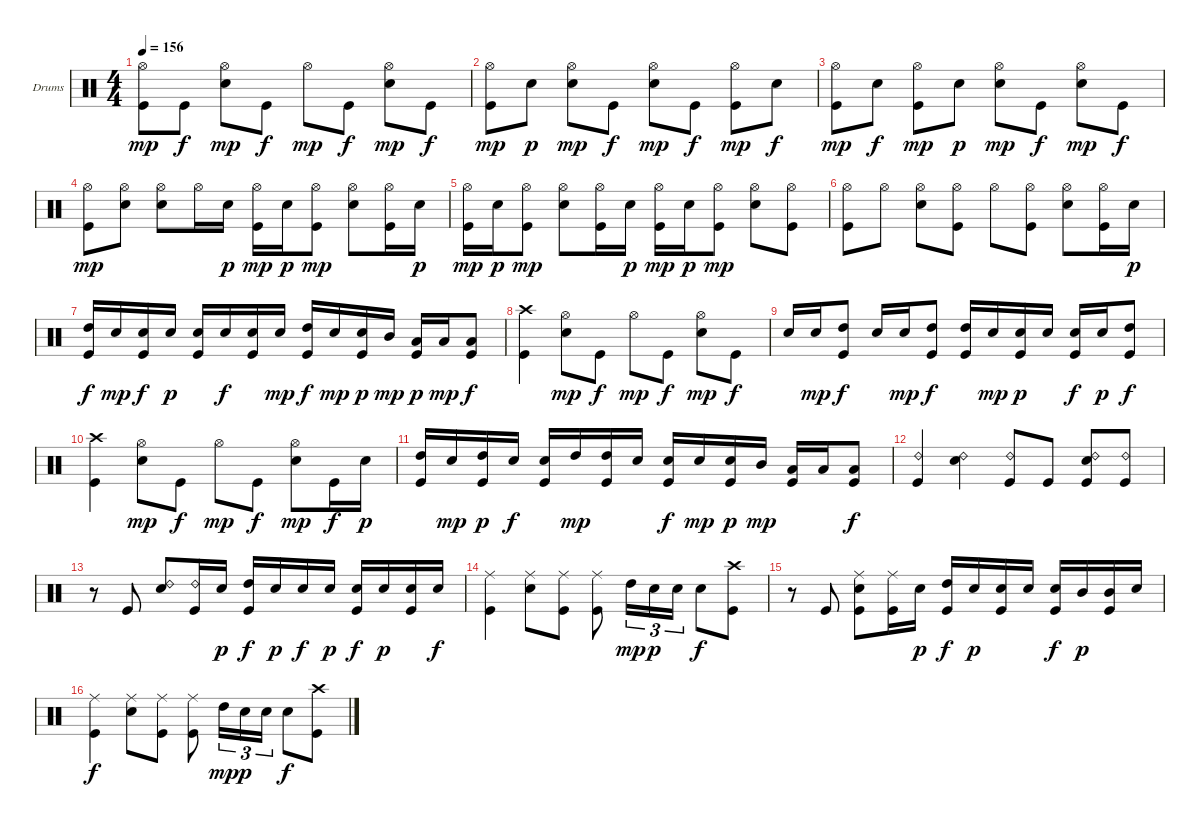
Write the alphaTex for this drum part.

\bracketExtendMode groupsimilarinstruments
\firstSystemTrackNameOrientation horizontal
\otherSystemsTrackNameOrientation horizontal
\track ("Drumkit" "Drums") {instrument percussion}
\staff {score}
\articulation defaults
\ts (4 4)
\tempo 156
\clef neutral
\ks c
("Hi-Hat (open)" "Kick (hit)").8{dy mp} "Kick (hit)".8{dy f} ("Hi-Hat (open)" "Snare (hit) 2").8{dy mp} "Kick (hit)".8{dy f} "Hi-Hat (open)".8{dy mp} "Kick (hit)".8{dy f} ("Hi-Hat (open)" "Snare (hit) 2").8{dy mp} "Kick (hit)".8{dy f} |
("Hi-Hat (open)" "Kick (hit)").8{dy mp} "Snare (hit) 2".8{dy p} ("Hi-Hat (open)" "Snare (hit) 2").8{dy mp} "Kick (hit)".8{dy f} ("Hi-Hat (open)" "Snare (hit) 2").8{dy mp} "Kick (hit)".8{dy f} ("Hi-Hat (open)" "Kick (hit)").8{dy mp} "Snare (hit) 2".8{dy f} |
("Hi-Hat (open)" "Kick (hit)").8{dy mp} "Snare (hit) 2".8{dy f} ("Hi-Hat (open)" "Kick (hit)").8{dy mp} "Snare (hit) 2".8{dy p} ("Hi-Hat (open)" "Snare (hit) 2").8{dy mp} "Kick (hit)".8{dy f} ("Hi-Hat (open)" "Snare (hit) 2").8{dy mp} "Kick (hit)".8{dy f} |
("Hi-Hat (open)" "Kick (hit)").8{dy mp} ("Hi-Hat (open)" "Snare (hit) 2").8 ("Hi-Hat (open)" "Snare (hit) 2").8 "Hi-Hat (open)".16 "Snare (hit) 2".16{dy p} ("Hi-Hat (open)" "Kick (hit)").16{dy mp} "Snare (hit) 2".16{dy p} ("Hi-Hat (open)" "Kick (hit)").8{dy mp} ("Hi-Hat (open)" "Snare (hit) 2").8 ("Hi-Hat (open)" "Kick (hit)").16 "Snare (hit) 2".16{dy p} |
("Hi-Hat (open)" "Kick (hit)").16{dy mp} "Snare (hit) 2".16{dy p} ("Hi-Hat (open)" "Kick (hit)").8{dy mp} ("Hi-Hat (open)" "Snare (hit) 2").8 ("Hi-Hat (open)" "Kick (hit)").16 "Snare (hit) 2".16{dy p} ("Hi-Hat (open)" "Kick (hit)").16{dy mp} "Snare (hit) 2".16{dy p} ("Hi-Hat (open)" "Kick (hit)").8{dy mp} ("Hi-Hat (open)" "Snare (hit) 2").8 ("Hi-Hat (open)" "Kick (hit)").8 |
("Hi-Hat (open)" "Kick (hit)").8 "Hi-Hat (open)".8 ("Hi-Hat (open)" "Snare (hit) 2").8 ("Hi-Hat (open)" "Kick (hit)").8 "Hi-Hat (open)".8 ("Hi-Hat (open)" "Kick (hit)").8 ("Hi-Hat (open)" "Snare (hit) 2").8 ("Hi-Hat (open)" "Kick (hit)").16 "Snare (hit) 2".16{dy p} |
("High Tom (hit)" "Kick (hit)").16{dy f} "Snare (hit) 2".16{dy mp} ("Snare (hit) 2" "Kick (hit)").16{dy f} "Snare (hit) 2".16{dy p} ("Snare (hit) 2" "Kick (hit)").16 "Snare (hit) 2".16{dy f} ("Snare (hit) 2" "Kick (hit)").16 "Snare (hit) 2".16{dy mp} ("High Tom (hit)" "Kick (hit)").16{dy f} "Snare (hit) 2".16{dy mp} ("Snare (hit) 2" "Kick (hit)").16{dy p} "Mid Tom (hit)".16{dy mp} ("Low Tom (hit)" "Kick (hit)").16{dy p} "Low Tom (hit)".16{dy mp} ("Low Tom (hit)" "Kick (hit)").8{dy f} |
("Crash high (hit)" "Kick (hit)").4 ("Hi-Hat (open)" "Snare (hit) 2").8{dy mp} "Kick (hit)".8{dy f} "Hi-Hat (open)".8{dy mp} "Kick (hit)".8{dy f} ("Hi-Hat (open)" "Snare (hit) 2").8{dy mp} "Kick (hit)".8{dy f} |
"Snare (hit) 2".16 "Snare (hit) 2".16{dy mp} ("High Tom (hit)" "Kick (hit)").8{dy f} "Snare (hit) 2".16 "Snare (hit) 2".16{dy mp} ("High Tom (hit)" "Kick (hit)").8{dy f} ("High Tom (hit)" "Kick (hit)").16 "Snare (hit) 2".16{dy mp} ("Snare (hit) 2" "Kick (hit)").16{dy p} "Snare (hit) 2".16 ("Snare (hit) 2" "Kick (hit)").16{dy f} "Snare (hit) 2".16{dy p} ("High Tom (hit)" "Kick (hit)").8{dy f} |
("Crash high (hit)" "Kick (hit)").4 ("Hi-Hat (open)" "Snare (hit) 2").8{dy mp} "Kick (hit)".8{dy f} "Hi-Hat (open)".8{dy mp} "Kick (hit)".8{dy f} ("Hi-Hat (open)" "Snare (hit) 2").8{dy mp} "Kick (hit)".16{dy f} "Snare (hit) 2".16{dy p} |
("High Tom (hit)" "Kick (hit)").16 "Snare (hit) 2".16{dy mp} ("High Tom (hit)" "Kick (hit)").16{dy p} "Snare (hit) 2".16{dy f} ("Snare (hit) 2" "Kick (hit)").16 "High Tom (hit)".16{dy mp} ("High Tom (hit)" "Kick (hit)").16 "Snare (hit) 2".16 ("Snare (hit) 2" "Kick (hit)").16{dy f} "Snare (hit) 2".16{dy mp} ("Snare (hit) 2" "Kick (hit)").16{dy p} "Mid Tom (hit)".16{dy mp} ("Low Tom (hit)" "Kick (hit)").16 "Low Tom (hit)".16 ("Low Tom (hit)" "Kick (hit)").8{dy f} |
("Ride (bell) 2" "Kick (hit)").4 ("Ride (bell) 2" "Snare (hit) 2").4 ("Ride (bell) 2" "Kick (hit)").8 "Kick (hit)".8 ("Ride (bell) 2" "Snare (hit) 2" "Kick (hit)").8 ("Ride (bell) 2" "Kick (hit)").8 |
r.8 "Kick (hit)".8 ("Ride (bell) 2" "Snare (hit) 2").8 ("Ride (bell) 2" "Kick (hit)").16 "Snare (hit) 2".16{dy p} ("High Tom (hit)" "Kick (hit)").16{dy f} "Snare (hit) 2".16{dy p} "Snare (hit) 2".16{dy f} "Snare (hit) 2".16{dy p} ("Snare (hit) 2" "Kick (hit)").16{dy f} "Snare (hit) 2".16{dy p} ("Snare (hit) 2" "Kick (hit)").16 "Snare (hit) 2".16{dy f} |
("Ride (middle)" "Kick (hit)").4 ("Ride (middle)" "Snare (hit) 2").8 ("Ride (middle)" "Kick (hit)").8 ("Ride (middle)" "Kick (hit)").8 "High Tom (hit)".16{tu (3 2) dy mp} "Snare (hit) 2".16{tu (3 2) dy p} "Snare (hit) 2".16{tu (3 2)} "Snare (hit) 2".8{dy f} ("Crash high (hit)" "Kick (hit)").8 |
r.8 "Kick (hit)".8 ("Ride (middle)" "Snare (hit) 2" "Kick (hit)").8 ("Ride (middle)" "Kick (hit)").16 "Snare (hit) 2".16{dy p} ("High Tom (hit)" "Kick (hit)").16{dy f} "Snare (hit) 2".16{dy p} ("Snare (hit) 2" "Kick (hit)").16 "Snare (hit) 2".16 ("Snare (hit) 2" "Kick (hit)").16{dy f} "Mid Tom (hit)".16{dy p} ("Mid Tom (hit)" "Kick (hit)").16 "Snare (hit) 2".16 |
("Ride (middle)" "Kick (hit)").4{dy f} ("Ride (middle)" "Snare (hit) 2").8 ("Ride (middle)" "Kick (hit)").8 ("Ride (middle)" "Kick (hit)").8 "High Tom (hit)".16{tu (3 2) dy mp} "Snare (hit) 2".16{tu (3 2) dy p} "Snare (hit) 2".16{tu (3 2)} "Snare (hit) 2".8{dy f} ("Crash high (hit)" "Kick (hit)").8
